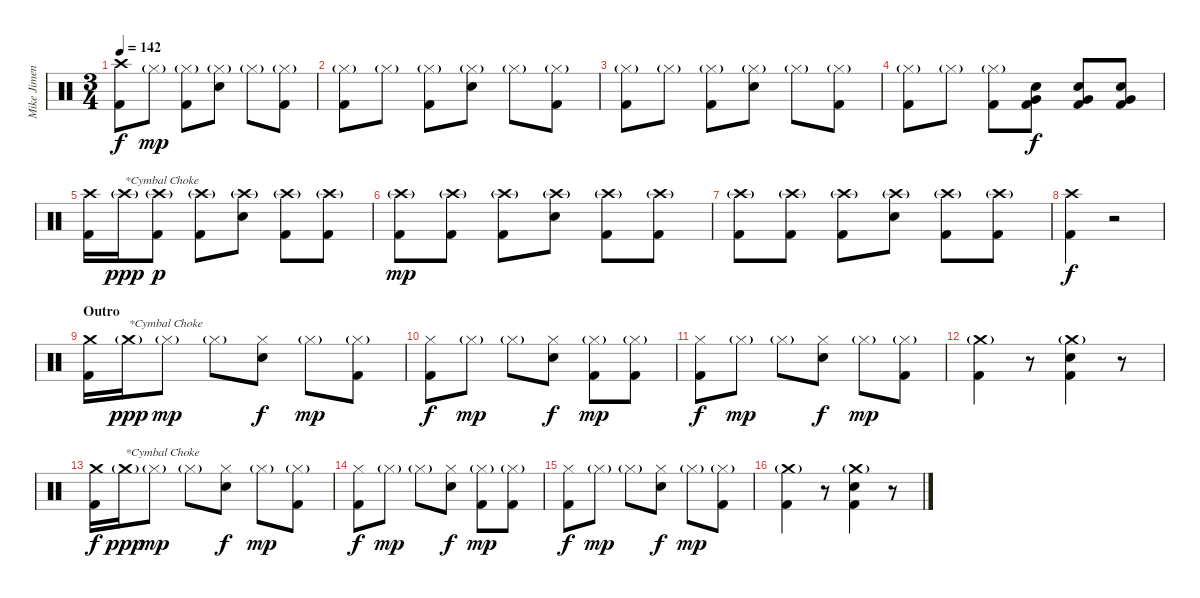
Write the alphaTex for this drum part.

\track ("Mike Jimenez" "Mike Jimen") {instrument percussion}
\staff {score}
\articulation defaults
\ts (3 4)
\tempo 142
\clef neutral
\ks c
("Crash high (hit)" "Kick (hit) 2").8{dy f} "Hi-Hat (closed)"{g}.8{dy mp} ("Hi-Hat (closed)"{g} "Kick (hit) 2").8 ("Hi-Hat (closed)"{g} "Electric Snare (hit)").8 "Hi-Hat (closed)"{g}.8 ("Hi-Hat (closed)"{g} "Kick (hit) 2").8 |
("Hi-Hat (closed)"{g} "Kick (hit) 2").8 "Hi-Hat (closed)"{g}.8 ("Hi-Hat (closed)"{g} "Kick (hit) 2").8 ("Hi-Hat (closed)"{g} "Electric Snare (hit)").8 "Hi-Hat (closed)"{g}.8 ("Hi-Hat (closed)"{g} "Kick (hit) 2").8 |
("Hi-Hat (closed)"{g} "Kick (hit) 2").8 "Hi-Hat (closed)"{g}.8 ("Hi-Hat (closed)"{g} "Kick (hit) 2").8 ("Hi-Hat (closed)"{g} "Electric Snare (hit)").8 "Hi-Hat (closed)"{g}.8 ("Hi-Hat (closed)"{g} "Kick (hit) 2").8 |
("Hi-Hat (closed)"{g} "Kick (hit) 2").8 "Hi-Hat (closed)"{g}.8 ("Hi-Hat (closed)"{g} "Kick (hit) 2").8 ("Electric Snare (hit)" "Very Low Tom (hit)" "Kick (hit) 2").8{dy f} ("Electric Snare (hit)" "Very Low Tom (hit)" "Kick (hit) 2").8 ("Electric Snare (hit)" "Very Low Tom (hit)" "Kick (hit) 2").8 |
("Crash high (hit)" "Kick (hit) 2").16 "Crash high (hit)"{g}.16{txt "*Cymbal Choke" dy ppp} ("Crash high (hit)"{g} "Kick (hit) 2").8{dy p} ("Crash high (hit)"{g} "Kick (hit) 2").8 ("Crash high (hit)"{g} "Electric Snare (hit)").8 ("Crash high (hit)"{g} "Kick (hit) 2").8 ("Crash high (hit)"{g} "Kick (hit) 2").8 |
("Crash high (hit)"{g} "Kick (hit) 2").8{dy mp} ("Crash high (hit)"{g} "Kick (hit) 2").8 ("Crash high (hit)"{g} "Kick (hit) 2").8 ("Crash high (hit)"{g} "Electric Snare (hit)").8 ("Crash high (hit)"{g} "Kick (hit) 2").8 ("Crash high (hit)"{g} "Kick (hit) 2").8 |
("Crash high (hit)"{g} "Kick (hit) 2").8 ("Crash high (hit)"{g} "Kick (hit) 2").8 ("Crash high (hit)"{g} "Kick (hit) 2").8 ("Crash high (hit)"{g} "Electric Snare (hit)").8 ("Crash high (hit)"{g} "Kick (hit) 2").8 ("Crash high (hit)"{g} "Kick (hit) 2").8 |
("Crash high (hit)" "Kick (hit) 2").4{dy f} r.2 |
\section ("" "Outro")
("Crash medium (hit)" "Kick (hit) 2").16 "Crash medium (hit)"{g}.16{txt "*Cymbal Choke" dy ppp} "Hi-Hat (closed)"{g}.8{dy mp} "Hi-Hat (closed)"{g}.8 ("Hi-Hat (closed)" "Electric Snare (hit)").8{dy f} "Hi-Hat (closed)"{g}.8{dy mp} ("Hi-Hat (closed)"{g} "Kick (hit) 2").8 |
("Hi-Hat (closed)" "Kick (hit) 2").8{dy f} "Hi-Hat (closed)"{g}.8{dy mp} "Hi-Hat (closed)"{g}.8 ("Hi-Hat (closed)" "Electric Snare (hit)").8{dy f} ("Hi-Hat (closed)"{g} "Kick (hit) 2").8{dy mp} ("Hi-Hat (closed)"{g} "Kick (hit) 2").8 |
("Hi-Hat (closed)" "Kick (hit) 2").8{dy f} "Hi-Hat (closed)"{g}.8{dy mp} "Hi-Hat (closed)"{g}.8 ("Hi-Hat (closed)" "Electric Snare (hit)").8{dy f} "Hi-Hat (closed)"{g}.8{dy mp} ("Hi-Hat (closed)"{g} "Kick (hit) 2").8 |
("Crash medium (hit)"{g} "Kick (hit) 2").4 r.8 ("Crash medium (hit)"{g} "Electric Snare (hit)" "Kick (hit) 2").4 r.8 |
("Crash medium (hit)" "Kick (hit) 2").16{dy f} "Crash medium (hit)"{g}.16{txt "*Cymbal Choke" dy ppp} "Hi-Hat (closed)"{g}.8{dy mp} "Hi-Hat (closed)"{g}.8 ("Hi-Hat (closed)" "Electric Snare (hit)").8{dy f} "Hi-Hat (closed)"{g}.8{dy mp} ("Hi-Hat (closed)"{g} "Kick (hit) 2").8 |
("Hi-Hat (closed)" "Kick (hit) 2").8{dy f} "Hi-Hat (closed)"{g}.8{dy mp} "Hi-Hat (closed)"{g}.8 ("Hi-Hat (closed)" "Electric Snare (hit)").8{dy f} ("Hi-Hat (closed)"{g} "Kick (hit) 2").8{dy mp} ("Hi-Hat (closed)"{g} "Kick (hit) 2").8 |
("Hi-Hat (closed)" "Kick (hit) 2").8{dy f} "Hi-Hat (closed)"{g}.8{dy mp} "Hi-Hat (closed)"{g}.8 ("Hi-Hat (closed)" "Electric Snare (hit)").8{dy f} "Hi-Hat (closed)"{g}.8{dy mp} ("Hi-Hat (closed)"{g} "Kick (hit) 2").8 |
("Crash medium (hit)"{g} "Kick (hit) 2").4 r.8 ("Crash medium (hit)"{g} "Electric Snare (hit)" "Kick (hit) 2").4 r.8
